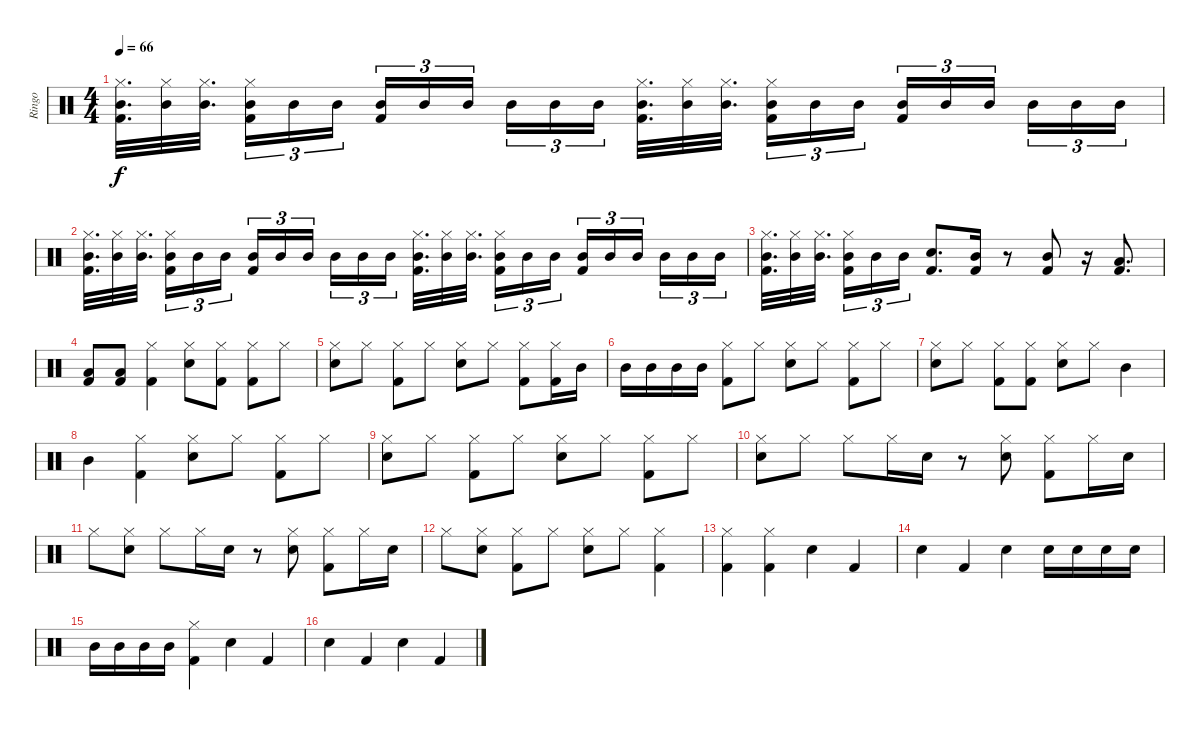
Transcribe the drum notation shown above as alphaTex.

\track ("Ringo" "Ringo") {instrument percussion}
\staff {score}
\articulation defaults
\ts (4 4)
\tempo 66
\clef neutral
\ks c
("Hi-Hat (closed)" "Mid Tom (hit)" "Kick (hit) 2").32{d dy f} ("Hi-Hat (closed)" "Mid Tom (hit)").32 ("Hi-Hat (closed)" "Mid Tom (hit)").32{d} ("Hi-Hat (closed)" "Mid Tom (hit)" "Kick (hit) 2").16{tu (3 2)} "Mid Tom (hit)".16{tu (3 2)} "Mid Tom (hit)".16{tu (3 2)} ("Mid Tom (hit)" "Kick (hit) 2").16{tu (3 2)} "Mid Tom (hit)".16{tu (3 2)} "Mid Tom (hit)".16{tu (3 2)} "Mid Tom (hit)".16{tu (3 2)} "Mid Tom (hit)".16{tu (3 2)} "Mid Tom (hit)".16{tu (3 2)} ("Hi-Hat (closed)" "Mid Tom (hit)" "Kick (hit) 2").32{d} ("Hi-Hat (closed)" "Mid Tom (hit)").32 ("Hi-Hat (closed)" "Mid Tom (hit)").32{d} ("Hi-Hat (closed)" "Mid Tom (hit)" "Kick (hit) 2").16{tu (3 2)} "Mid Tom (hit)".16{tu (3 2)} "Mid Tom (hit)".16{tu (3 2)} ("Mid Tom (hit)" "Kick (hit) 2").16{tu (3 2)} "Mid Tom (hit)".16{tu (3 2)} "Mid Tom (hit)".16{tu (3 2)} "Mid Tom (hit)".16{tu (3 2)} "Mid Tom (hit)".16{tu (3 2)} "Mid Tom (hit)".16{tu (3 2)} |
("Hi-Hat (closed)" "Mid Tom (hit)" "Kick (hit) 2").32{d} ("Hi-Hat (closed)" "Mid Tom (hit)").32 ("Hi-Hat (closed)" "Mid Tom (hit)").32{d} ("Hi-Hat (closed)" "Mid Tom (hit)" "Kick (hit) 2").16{tu (3 2)} "Mid Tom (hit)".16{tu (3 2)} "Mid Tom (hit)".16{tu (3 2)} ("Mid Tom (hit)" "Kick (hit) 2").16{tu (3 2)} "Mid Tom (hit)".16{tu (3 2)} "Mid Tom (hit)".16{tu (3 2)} "Mid Tom (hit)".16{tu (3 2)} "Mid Tom (hit)".16{tu (3 2)} "Mid Tom (hit)".16{tu (3 2)} ("Hi-Hat (closed)" "Mid Tom (hit)" "Kick (hit) 2").32{d} ("Hi-Hat (closed)" "Mid Tom (hit)").32 ("Hi-Hat (closed)" "Mid Tom (hit)").32{d} ("Hi-Hat (closed)" "Mid Tom (hit)" "Kick (hit) 2").16{tu (3 2)} "Mid Tom (hit)".16{tu (3 2)} "Mid Tom (hit)".16{tu (3 2)} ("Mid Tom (hit)" "Kick (hit) 2").16{tu (3 2)} "Mid Tom (hit)".16{tu (3 2)} "Mid Tom (hit)".16{tu (3 2)} "Mid Tom (hit)".16{tu (3 2)} "Mid Tom (hit)".16{tu (3 2)} "Mid Tom (hit)".16{tu (3 2)} |
("Hi-Hat (closed)" "Mid Tom (hit)" "Kick (hit) 2").32{d} ("Hi-Hat (closed)" "Mid Tom (hit)").32 ("Hi-Hat (closed)" "Mid Tom (hit)").32{d} ("Hi-Hat (closed)" "Mid Tom (hit)" "Kick (hit) 2").16{tu (3 2)} "Mid Tom (hit)".16{tu (3 2)} "Mid Tom (hit)".16{tu (3 2)} ("Snare (hit) 2" "Kick (hit) 2").8{d} ("Mid Tom (hit)" "Kick (hit) 2").16 r.8 ("Mid Tom (hit)" "Kick (hit) 2").8 r.16 ("Low Floor Tom (hit)" "Kick (hit) 2").8{d} |
("Low Floor Tom (hit)" "Kick (hit) 2").8 ("Low Floor Tom (hit)" "Kick (hit) 2").8 ("Hi-Hat (closed)" "Kick (hit) 2").4 ("Hi-Hat (closed)" "Snare (hit) 2").8 ("Hi-Hat (closed)" "Kick (hit) 2").8 ("Hi-Hat (closed)" "Kick (hit) 2").8 "Hi-Hat (closed)".8 |
("Hi-Hat (closed)" "Snare (hit) 2").8 "Hi-Hat (closed)".8 ("Hi-Hat (closed)" "Kick (hit) 2").8 "Hi-Hat (closed)".8 ("Hi-Hat (closed)" "Snare (hit) 2").8 "Hi-Hat (closed)".8 ("Hi-Hat (closed)" "Kick (hit) 2").8 ("Hi-Hat (closed)" "Kick (hit) 2").16 "Mid Tom (hit)".16 |
"Mid Tom (hit)".16 "Mid Tom (hit)".16 "Mid Tom (hit)".16 "Mid Tom (hit)".16 ("Hi-Hat (closed)" "Kick (hit) 2").8 "Hi-Hat (closed)".8 ("Hi-Hat (closed)" "Snare (hit) 2").8 "Hi-Hat (closed)".8 ("Hi-Hat (closed)" "Kick (hit) 2").8 "Hi-Hat (closed)".8 |
("Hi-Hat (closed)" "Snare (hit) 2").8 "Hi-Hat (closed)".8 ("Hi-Hat (closed)" "Kick (hit) 2").8 ("Hi-Hat (closed)" "Kick (hit) 2").8 ("Hi-Hat (closed)" "Snare (hit) 2").8 "Hi-Hat (closed)".8 "Mid Tom (hit)".4 |
"Mid Tom (hit)".4 ("Hi-Hat (closed)" "Kick (hit) 2").4 ("Hi-Hat (closed)" "Snare (hit) 2").8 "Hi-Hat (closed)".8 ("Hi-Hat (closed)" "Kick (hit) 2").8 "Hi-Hat (closed)".8 |
("Hi-Hat (closed)" "Snare (hit) 2").8 "Hi-Hat (closed)".8 ("Hi-Hat (closed)" "Kick (hit) 2").8 "Hi-Hat (closed)".8 ("Hi-Hat (closed)" "Snare (hit) 2").8 "Hi-Hat (closed)".8 ("Hi-Hat (closed)" "Kick (hit) 2").8 "Hi-Hat (closed)".8 |
("Hi-Hat (closed)" "Snare (hit) 2").8 "Hi-Hat (closed)".8 "Hi-Hat (closed)".8 "Hi-Hat (closed)".16 "Snare (hit) 2".16 r.8 ("Hi-Hat (closed)" "Snare (hit) 2").8 ("Hi-Hat (closed)" "Kick (hit) 2").8 "Hi-Hat (closed)".16 "Snare (hit) 2".16 |
"Hi-Hat (closed)".8 ("Hi-Hat (closed)" "Snare (hit) 2").8 "Hi-Hat (closed)".8 "Hi-Hat (closed)".16 "Snare (hit) 2".16 r.8 ("Hi-Hat (closed)" "Snare (hit) 2").8 ("Hi-Hat (closed)" "Kick (hit) 2").8 "Hi-Hat (closed)".16 "Snare (hit) 2".16 |
"Hi-Hat (closed)".8 ("Hi-Hat (closed)" "Snare (hit) 2").8 ("Hi-Hat (closed)" "Kick (hit) 2").8 "Hi-Hat (closed)".8 ("Hi-Hat (closed)" "Snare (hit) 2").8 "Hi-Hat (closed)".8 ("Hi-Hat (closed)" "Kick (hit) 2").4 |
("Hi-Hat (closed)" "Kick (hit) 2").4 ("Hi-Hat (closed)" "Kick (hit) 2").4 "Snare (hit) 2".4 "Kick (hit) 2".4 |
"Snare (hit) 2".4 "Kick (hit) 2".4 "Snare (hit) 2".4 "Snare (hit) 2".16 "Snare (hit) 2".16 "Snare (hit) 2".16 "Snare (hit) 2".16 |
"Mid Tom (hit)".16 "Mid Tom (hit)".16 "Mid Tom (hit)".16 "Mid Tom (hit)".16 ("Hi-Hat (closed)" "Kick (hit) 2").4 "Snare (hit) 2".4 "Kick (hit) 2".4 |
"Snare (hit) 2".4 "Kick (hit) 2".4 "Snare (hit) 2".4 "Kick (hit) 2".4
